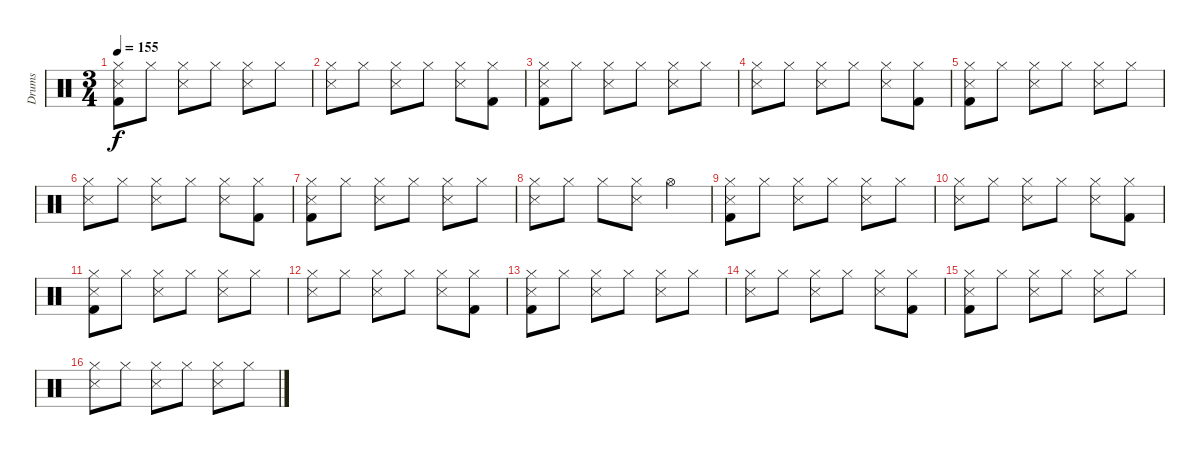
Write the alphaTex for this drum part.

\track ("Drums" "Drums") {instrument percussion}
\staff {score}
\articulation defaults
\ts (3 4)
\tempo 155
\clef neutral
\ks c
("Hi-Hat (closed)" "Snare (side stick) 3" "Kick (hit) 2").8{dy f} "Hi-Hat (closed)".8 ("Hi-Hat (closed)" "Snare (side stick) 3").8 "Hi-Hat (closed)".8 ("Snare (side stick) 3" "Hi-Hat (closed)").8 "Hi-Hat (closed)".8 |
("Hi-Hat (closed)" "Snare (side stick) 3").8 "Hi-Hat (closed)".8 ("Hi-Hat (closed)" "Snare (side stick) 3").8 "Hi-Hat (closed)".8 ("Snare (side stick) 3" "Hi-Hat (closed)").8 ("Kick (hit) 2" "Hi-Hat (closed)").8 |
("Hi-Hat (closed)" "Snare (side stick) 3" "Kick (hit) 2").8 "Hi-Hat (closed)".8 ("Hi-Hat (closed)" "Snare (side stick) 3").8 "Hi-Hat (closed)".8 ("Snare (side stick) 3" "Hi-Hat (closed)").8 "Hi-Hat (closed)".8 |
("Hi-Hat (closed)" "Snare (side stick) 3").8 "Hi-Hat (closed)".8 ("Hi-Hat (closed)" "Snare (side stick) 3").8 "Hi-Hat (closed)".8 ("Snare (side stick) 3" "Hi-Hat (closed)").8 ("Kick (hit) 2" "Hi-Hat (closed)").8 |
("Hi-Hat (closed)" "Snare (side stick) 3" "Kick (hit) 2").8 "Hi-Hat (closed)".8 ("Hi-Hat (closed)" "Snare (side stick) 3").8 "Hi-Hat (closed)".8 ("Snare (side stick) 3" "Hi-Hat (closed)").8 "Hi-Hat (closed)".8 |
("Hi-Hat (closed)" "Snare (side stick) 3").8 "Hi-Hat (closed)".8 ("Hi-Hat (closed)" "Snare (side stick) 3").8 "Hi-Hat (closed)".8 ("Snare (side stick) 3" "Hi-Hat (closed)").8 ("Kick (hit) 2" "Hi-Hat (closed)").8 |
("Hi-Hat (closed)" "Snare (side stick) 3" "Kick (hit) 2").8 "Hi-Hat (closed)".8 ("Hi-Hat (closed)" "Snare (side stick) 3").8 "Hi-Hat (closed)".8 ("Snare (side stick) 3" "Hi-Hat (closed)").8 "Hi-Hat (closed)".8 |
("Hi-Hat (closed)" "Snare (side stick) 3").8 "Hi-Hat (closed)".8 "Hi-Hat (closed)".8 ("Snare (side stick) 3" "Hi-Hat (closed)").8 "Hi-Hat (open)".4 |
("Hi-Hat (closed)" "Snare (side stick) 3" "Kick (hit) 2").8 "Hi-Hat (closed)".8 ("Hi-Hat (closed)" "Snare (side stick) 3").8 "Hi-Hat (closed)".8 ("Snare (side stick) 3" "Hi-Hat (closed)").8 "Hi-Hat (closed)".8 |
("Hi-Hat (closed)" "Snare (side stick) 3").8 "Hi-Hat (closed)".8 ("Hi-Hat (closed)" "Snare (side stick) 3").8 "Hi-Hat (closed)".8 ("Snare (side stick) 3" "Hi-Hat (closed)").8 ("Kick (hit) 2" "Hi-Hat (closed)").8 |
("Hi-Hat (closed)" "Snare (side stick) 3" "Kick (hit) 2").8 "Hi-Hat (closed)".8 ("Hi-Hat (closed)" "Snare (side stick) 3").8 "Hi-Hat (closed)".8 ("Snare (side stick) 3" "Hi-Hat (closed)").8 "Hi-Hat (closed)".8 |
("Hi-Hat (closed)" "Snare (side stick) 3").8 "Hi-Hat (closed)".8 ("Hi-Hat (closed)" "Snare (side stick) 3").8 "Hi-Hat (closed)".8 ("Snare (side stick) 3" "Hi-Hat (closed)").8 ("Kick (hit) 2" "Hi-Hat (closed)").8 |
("Hi-Hat (closed)" "Snare (side stick) 3" "Kick (hit) 2").8 "Hi-Hat (closed)".8 ("Hi-Hat (closed)" "Snare (side stick) 3").8 "Hi-Hat (closed)".8 ("Snare (side stick) 3" "Hi-Hat (closed)").8 "Hi-Hat (closed)".8 |
("Hi-Hat (closed)" "Snare (side stick) 3").8 "Hi-Hat (closed)".8 ("Hi-Hat (closed)" "Snare (side stick) 3").8 "Hi-Hat (closed)".8 ("Snare (side stick) 3" "Hi-Hat (closed)").8 ("Kick (hit) 2" "Hi-Hat (closed)").8 |
("Hi-Hat (closed)" "Snare (side stick) 3" "Kick (hit) 2").8 "Hi-Hat (closed)".8 ("Hi-Hat (closed)" "Snare (side stick) 3").8 "Hi-Hat (closed)".8 ("Snare (side stick) 3" "Hi-Hat (closed)").8 "Hi-Hat (closed)".8 |
("Hi-Hat (closed)" "Snare (side stick) 3").8 "Hi-Hat (closed)".8 ("Hi-Hat (closed)" "Snare (side stick) 3").8 "Hi-Hat (closed)".8 ("Snare (side stick) 3" "Hi-Hat (closed)").8 "Hi-Hat (closed)".8
